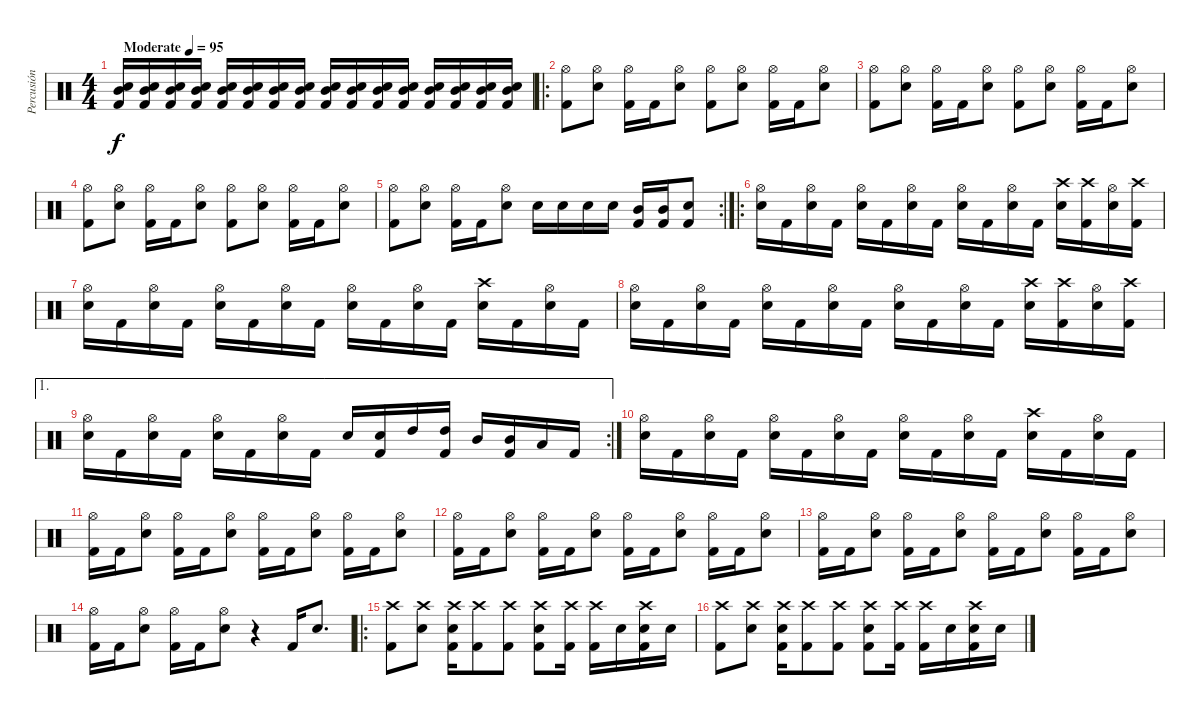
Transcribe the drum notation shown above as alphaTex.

\track ("Percusión" "Percusión") {instrument percussion}
\staff {score}
\articulation defaults
\ts (4 4)
\tempo (95 "Moderate")
\clef neutral
\ks c
("Mid Tom (hit)" "Electric Snare (hit)" "Kick (hit) 2").16{dy f} ("Mid Tom (hit)" "Electric Snare (hit)" "Kick (hit) 2").16 ("Mid Tom (hit)" "Electric Snare (hit)" "Kick (hit) 2").16 ("Mid Tom (hit)" "Electric Snare (hit)" "Kick (hit) 2").16 ("Mid Tom (hit)" "Electric Snare (hit)" "Kick (hit) 2").16 ("Mid Tom (hit)" "Electric Snare (hit)" "Kick (hit) 2").16 ("Mid Tom (hit)" "Electric Snare (hit)" "Kick (hit) 2").16 ("Mid Tom (hit)" "Electric Snare (hit)" "Kick (hit) 2").16 ("Mid Tom (hit)" "Electric Snare (hit)" "Kick (hit) 2").16 ("Mid Tom (hit)" "Electric Snare (hit)" "Kick (hit) 2").16 ("Mid Tom (hit)" "Electric Snare (hit)" "Kick (hit) 2").16 ("Mid Tom (hit)" "Electric Snare (hit)" "Kick (hit) 2").16 ("Mid Tom (hit)" "Electric Snare (hit)" "Kick (hit) 2").16 ("Mid Tom (hit)" "Electric Snare (hit)" "Kick (hit) 2").16 ("Mid Tom (hit)" "Electric Snare (hit)" "Kick (hit) 2").16 ("Mid Tom (hit)" "Electric Snare (hit)" "Kick (hit) 2").16 |
\ro
("Hi-Hat (open)" "Kick (hit) 2").8 ("Hi-Hat (open)" "Electric Snare (hit)").8 ("Hi-Hat (open)" "Kick (hit) 2").16 "Kick (hit) 2".16 ("Hi-Hat (open)" "Electric Snare (hit)").8 ("Hi-Hat (open)" "Kick (hit) 2").8 ("Hi-Hat (open)" "Electric Snare (hit)").8 ("Hi-Hat (open)" "Kick (hit) 2").16 "Kick (hit) 2".16 ("Hi-Hat (open)" "Electric Snare (hit)").8 |
("Hi-Hat (open)" "Kick (hit) 2").8 ("Hi-Hat (open)" "Electric Snare (hit)").8 ("Hi-Hat (open)" "Kick (hit) 2").16 "Kick (hit) 2".16 ("Hi-Hat (open)" "Electric Snare (hit)").8 ("Hi-Hat (open)" "Kick (hit) 2").8 ("Hi-Hat (open)" "Electric Snare (hit)").8 ("Hi-Hat (open)" "Kick (hit) 2").16 "Kick (hit) 2".16 ("Hi-Hat (open)" "Electric Snare (hit)").8 |
("Hi-Hat (open)" "Kick (hit) 2").8 ("Hi-Hat (open)" "Electric Snare (hit)").8 ("Hi-Hat (open)" "Kick (hit) 2").16 "Kick (hit) 2".16 ("Hi-Hat (open)" "Electric Snare (hit)").8 ("Hi-Hat (open)" "Kick (hit) 2").8 ("Hi-Hat (open)" "Electric Snare (hit)").8 ("Hi-Hat (open)" "Kick (hit) 2").16 "Kick (hit) 2".16 ("Hi-Hat (open)" "Electric Snare (hit)").8 |
\rc 2
("Hi-Hat (open)" "Kick (hit) 2").8 ("Hi-Hat (open)" "Electric Snare (hit)").8 ("Hi-Hat (open)" "Kick (hit) 2").16 "Kick (hit) 2".16 ("Hi-Hat (open)" "Electric Snare (hit)").8 "Electric Snare (hit)".16 "Electric Snare (hit)".16 "Electric Snare (hit)".16 "Electric Snare (hit)".16 ("Mid Tom (hit)" "Kick (hit) 2").16 ("Mid Tom (hit)" "Kick (hit) 2").16 ("Electric Snare (hit)" "Kick (hit) 2").8 |
\ro
("Hi-Hat (open)" "Electric Snare (hit)").16 "Kick (hit) 2".16 ("Hi-Hat (open)" "Electric Snare (hit)").16 "Kick (hit) 2".16 ("Hi-Hat (open)" "Electric Snare (hit)").16 "Kick (hit) 2".16 ("Hi-Hat (open)" "Electric Snare (hit)").16 "Kick (hit) 2".16 ("Hi-Hat (open)" "Electric Snare (hit)").16 "Kick (hit) 2".16 ("Hi-Hat (open)" "Electric Snare (hit)").16 "Kick (hit) 2".16 ("Crash high (hit)" "Electric Snare (hit)").16 ("Crash high (hit)" "Kick (hit) 2").16 ("Hi-Hat (open)" "Electric Snare (hit)").16 ("Crash high (hit)" "Kick (hit) 2").16 |
("Hi-Hat (open)" "Electric Snare (hit)").16 "Kick (hit) 2".16 ("Hi-Hat (open)" "Electric Snare (hit)").16 "Kick (hit) 2".16 ("Hi-Hat (open)" "Electric Snare (hit)").16 "Kick (hit) 2".16 ("Hi-Hat (open)" "Electric Snare (hit)").16 "Kick (hit) 2".16 ("Hi-Hat (open)" "Electric Snare (hit)").16 "Kick (hit) 2".16 ("Hi-Hat (open)" "Electric Snare (hit)").16 "Kick (hit) 2".16 ("Crash high (hit)" "Electric Snare (hit)").16 "Kick (hit) 2".16 ("Hi-Hat (open)" "Electric Snare (hit)").16 "Kick (hit) 2".16 |
("Hi-Hat (open)" "Electric Snare (hit)").16 "Kick (hit) 2".16 ("Hi-Hat (open)" "Electric Snare (hit)").16 "Kick (hit) 2".16 ("Hi-Hat (open)" "Electric Snare (hit)").16 "Kick (hit) 2".16 ("Hi-Hat (open)" "Electric Snare (hit)").16 "Kick (hit) 2".16 ("Hi-Hat (open)" "Electric Snare (hit)").16 "Kick (hit) 2".16 ("Hi-Hat (open)" "Electric Snare (hit)").16 "Kick (hit) 2".16 ("Crash high (hit)" "Electric Snare (hit)").16 ("Crash high (hit)" "Kick (hit) 2").16 ("Hi-Hat (open)" "Electric Snare (hit)").16 ("Crash high (hit)" "Kick (hit) 2").16 |
\ae 1
\rc 2
("Hi-Hat (open)" "Electric Snare (hit)").16 "Kick (hit) 2".16 ("Hi-Hat (open)" "Electric Snare (hit)").16 "Kick (hit) 2".16 ("Hi-Hat (open)" "Electric Snare (hit)").16 "Kick (hit) 2".16 ("Hi-Hat (open)" "Electric Snare (hit)").16 "Kick (hit) 2".16 "Electric Snare (hit)".16 ("Electric Snare (hit)" "Kick (hit) 2").16 "High Tom (hit)".16 ("High Tom (hit)" "Kick (hit) 2").16 "Mid Tom (hit)".16 ("Mid Tom (hit)" "Kick (hit) 2").16 "Low Tom (hit)".16 "Kick (hit) 2".16 |
("Hi-Hat (open)" "Electric Snare (hit)").16 "Kick (hit) 2".16 ("Hi-Hat (open)" "Electric Snare (hit)").16 "Kick (hit) 2".16 ("Hi-Hat (open)" "Electric Snare (hit)").16 "Kick (hit) 2".16 ("Hi-Hat (open)" "Electric Snare (hit)").16 "Kick (hit) 2".16 ("Hi-Hat (open)" "Electric Snare (hit)").16 "Kick (hit) 2".16 ("Hi-Hat (open)" "Electric Snare (hit)").16 "Kick (hit) 2".16 ("Crash high (hit)" "Electric Snare (hit)").16 "Kick (hit) 2".16 ("Hi-Hat (open)" "Electric Snare (hit)").16 "Kick (hit) 2".16 |
("Hi-Hat (open)" "Kick (hit) 2").16 "Kick (hit) 2".16 ("Hi-Hat (open)" "Electric Snare (hit)").8 ("Hi-Hat (open)" "Kick (hit) 2").16 "Kick (hit) 2".16 ("Hi-Hat (open)" "Electric Snare (hit)").8 ("Hi-Hat (open)" "Kick (hit) 2").16 "Kick (hit) 2".16 ("Hi-Hat (open)" "Electric Snare (hit)").8 ("Hi-Hat (open)" "Kick (hit) 2").16 "Kick (hit) 2".16 ("Hi-Hat (open)" "Electric Snare (hit)").8 |
("Hi-Hat (open)" "Kick (hit) 2").16 "Kick (hit) 2".16 ("Hi-Hat (open)" "Electric Snare (hit)").8 ("Hi-Hat (open)" "Kick (hit) 2").16 "Kick (hit) 2".16 ("Hi-Hat (open)" "Electric Snare (hit)").8 ("Hi-Hat (open)" "Kick (hit) 2").16 "Kick (hit) 2".16 ("Hi-Hat (open)" "Electric Snare (hit)").8 ("Hi-Hat (open)" "Kick (hit) 2").16 "Kick (hit) 2".16 ("Hi-Hat (open)" "Electric Snare (hit)").8 |
("Hi-Hat (open)" "Kick (hit) 2").16 "Kick (hit) 2".16 ("Hi-Hat (open)" "Electric Snare (hit)").8 ("Hi-Hat (open)" "Kick (hit) 2").16 "Kick (hit) 2".16 ("Hi-Hat (open)" "Electric Snare (hit)").8 ("Hi-Hat (open)" "Kick (hit) 2").16 "Kick (hit) 2".16 ("Hi-Hat (open)" "Electric Snare (hit)").8 ("Hi-Hat (open)" "Kick (hit) 2").16 "Kick (hit) 2".16 ("Hi-Hat (open)" "Electric Snare (hit)").8 |
("Hi-Hat (open)" "Kick (hit) 2").16 "Kick (hit) 2".16 ("Hi-Hat (open)" "Electric Snare (hit)").8 ("Hi-Hat (open)" "Kick (hit) 2").16 "Kick (hit) 2".16 ("Hi-Hat (open)" "Electric Snare (hit)").8 r.4 "Kick (hit) 2".16 "Electric Snare (hit)".8{d} |
\ro
("Crash high (hit)" "Kick (hit) 2").8 ("Crash high (hit)" "Electric Snare (hit)").8 ("Crash high (hit)" "Electric Snare (hit)" "Kick (hit) 2").16 ("Crash high (hit)" "Kick (hit) 2").8 ("Crash high (hit)" "Kick (hit) 2").8 ("Crash high (hit)" "Electric Snare (hit)" "Kick (hit) 2").8 ("Crash high (hit)" "Kick (hit) 2").16 ("Crash high (hit)" "Kick (hit) 2").16 "Electric Snare (hit)".16 ("Crash high (hit)" "Electric Snare (hit)" "Kick (hit) 2").16 "Electric Snare (hit)".16 |
("Crash high (hit)" "Kick (hit) 2").8 ("Crash high (hit)" "Electric Snare (hit)").8 ("Crash high (hit)" "Electric Snare (hit)" "Kick (hit) 2").16 ("Crash high (hit)" "Kick (hit) 2").8 ("Crash high (hit)" "Kick (hit) 2").8 ("Crash high (hit)" "Electric Snare (hit)" "Kick (hit) 2").8 ("Crash high (hit)" "Kick (hit) 2").16 ("Crash high (hit)" "Kick (hit) 2").16 "Electric Snare (hit)".16 ("Crash high (hit)" "Electric Snare (hit)" "Kick (hit) 2").16 "Electric Snare (hit)".16
